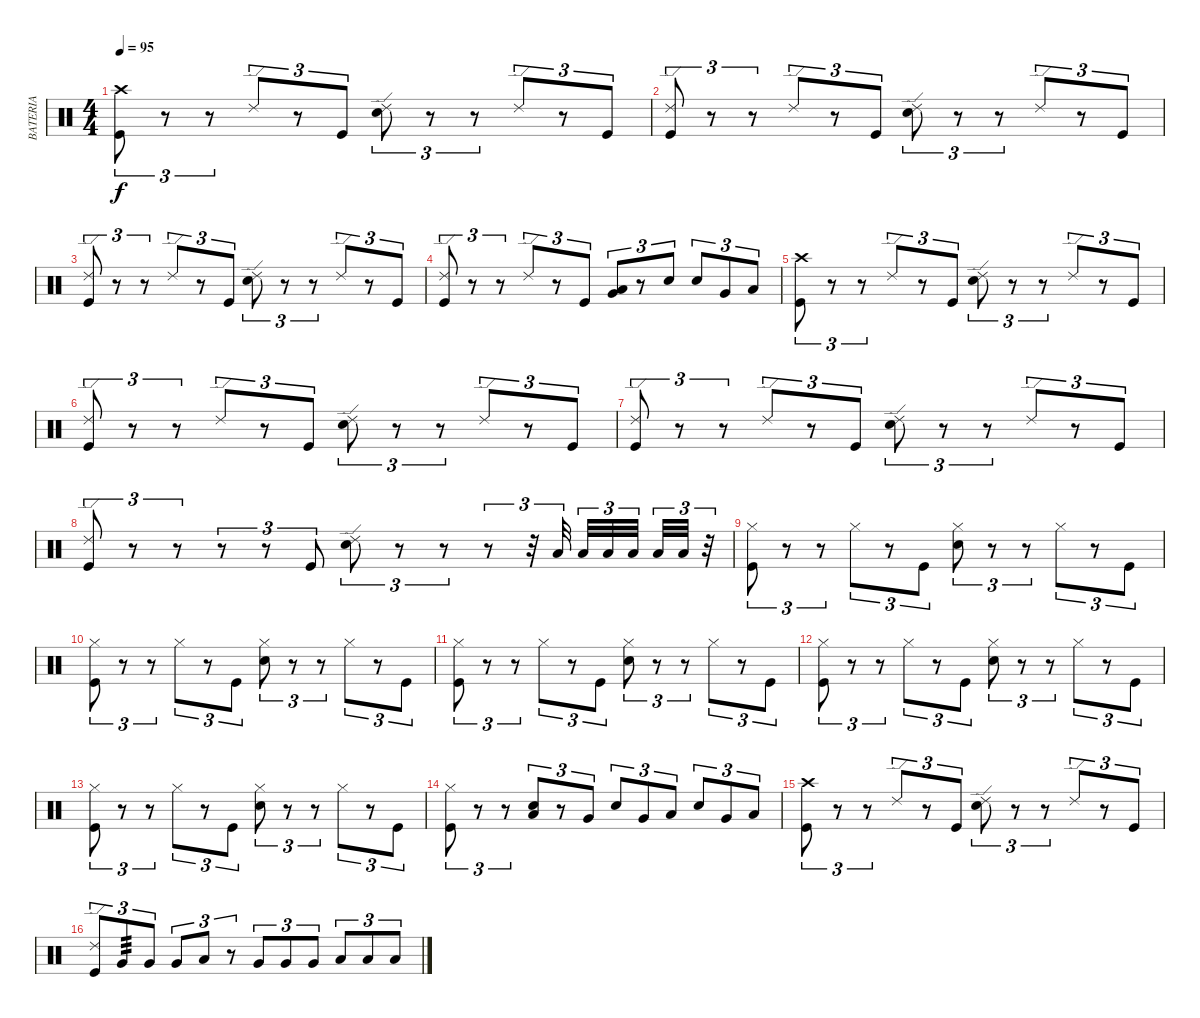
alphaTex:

\track ("BATERIA" "BATERIA") {instrument percussion}
\staff {score}
\articulation defaults
\ts (4 4)
\tempo 95
\clef neutral
\ks c
("Crash high (hit)" "Kick (hit)").8{tu (3 2) dy f} r.8{tu (3 2)} r.8{tu (3 2)} "Ride (edge) 2".8{tu (3 2)} r.8{tu (3 2)} "Kick (hit)".8{tu (3 2)} ("Ride (edge) 2" "Snare (hit) 2").8{tu (3 2)} r.8{tu (3 2)} r.8{tu (3 2)} "Ride (edge) 2".8{tu (3 2)} r.8{tu (3 2)} "Kick (hit)".8{tu (3 2)} |
("Ride (edge) 2" "Kick (hit)").8{tu (3 2)} r.8{tu (3 2)} r.8{tu (3 2)} "Ride (edge) 2".8{tu (3 2)} r.8{tu (3 2)} "Kick (hit)".8{tu (3 2)} ("Ride (edge) 2" "Snare (hit) 2").8{tu (3 2)} r.8{tu (3 2)} r.8{tu (3 2)} "Ride (edge) 2".8{tu (3 2)} r.8{tu (3 2)} "Kick (hit)".8{tu (3 2)} |
("Ride (edge) 2" "Kick (hit)").8{tu (3 2)} r.8{tu (3 2)} r.8{tu (3 2)} "Ride (edge) 2".8{tu (3 2)} r.8{tu (3 2)} "Kick (hit)".8{tu (3 2)} ("Ride (edge) 2" "Snare (hit) 2").8{tu (3 2)} r.8{tu (3 2)} r.8{tu (3 2)} "Ride (edge) 2".8{tu (3 2)} r.8{tu (3 2)} "Kick (hit)".8{tu (3 2)} |
("Ride (edge) 2" "Kick (hit)").8{tu (3 2)} r.8{tu (3 2)} r.8{tu (3 2)} "Ride (edge) 2".8{tu (3 2)} r.8{tu (3 2)} "Kick (hit)".8{tu (3 2)} ("Very Low Tom (hit)" "Low Tom (hit)").8{tu (3 2)} r.8{tu (3 2)} "Snare (hit) 2".8{tu (3 2)} "Snare (hit) 2".8{tu (3 2)} "Very Low Tom (hit)".8{tu (3 2)} "Low Floor Tom (hit)".8{tu (3 2)} |
("Crash high (hit)" "Kick (hit)").8{tu (3 2)} r.8{tu (3 2)} r.8{tu (3 2)} "Ride (edge) 2".8{tu (3 2)} r.8{tu (3 2)} "Kick (hit)".8{tu (3 2)} ("Ride (edge) 2" "Snare (hit) 2").8{tu (3 2)} r.8{tu (3 2)} r.8{tu (3 2)} "Ride (edge) 2".8{tu (3 2)} r.8{tu (3 2)} "Kick (hit)".8{tu (3 2)} |
("Ride (edge) 2" "Kick (hit)").8{tu (3 2)} r.8{tu (3 2)} r.8{tu (3 2)} "Ride (edge) 2".8{tu (3 2)} r.8{tu (3 2)} "Kick (hit)".8{tu (3 2)} ("Ride (edge) 2" "Snare (hit) 2").8{tu (3 2)} r.8{tu (3 2)} r.8{tu (3 2)} "Ride (edge) 2".8{tu (3 2)} r.8{tu (3 2)} "Kick (hit)".8{tu (3 2)} |
("Ride (edge) 2" "Kick (hit)").8{tu (3 2)} r.8{tu (3 2)} r.8{tu (3 2)} "Ride (edge) 2".8{tu (3 2)} r.8{tu (3 2)} "Kick (hit)".8{tu (3 2)} ("Ride (edge) 2" "Snare (hit) 2").8{tu (3 2)} r.8{tu (3 2)} r.8{tu (3 2)} "Ride (edge) 2".8{tu (3 2)} r.8{tu (3 2)} "Kick (hit)".8{tu (3 2)} |
("Ride (edge) 2" "Kick (hit)").8{tu (3 2)} r.8{tu (3 2)} r.8{tu (3 2)} r.8{tu (3 2)} r.8{tu (3 2)} "Kick (hit)".8{tu (3 2)} ("Ride (edge) 2" "Snare (hit) 2").8{tu (3 2)} r.8{tu (3 2)} r.8{tu (3 2)} r.8{tu (3 2)} r.32{tu (3 2)} "Low Floor Tom (hit)".32{tu (3 2) beam splitsecondary} "Low Floor Tom (hit)".32{tu (3 2)} "Low Floor Tom (hit)".32{tu (3 2)} "Low Floor Tom (hit)".32{tu (3 2) beam splitsecondary} "Low Floor Tom (hit)".32{tu (3 2)} "Low Floor Tom (hit)".32{tu (3 2)} r.32{tu (3 2)} |
("Hi-Hat (closed)" "Kick (hit)").8{tu (3 2)} r.8{tu (3 2)} r.8{tu (3 2)} "Hi-Hat (closed)".8{tu (3 2)} r.8{tu (3 2)} "Kick (hit)".8{tu (3 2)} ("Hi-Hat (closed)" "Snare (hit) 2").8{tu (3 2)} r.8{tu (3 2)} r.8{tu (3 2)} "Hi-Hat (closed)".8{tu (3 2)} r.8{tu (3 2)} "Kick (hit)".8{tu (3 2)} |
("Hi-Hat (closed)" "Kick (hit)").8{tu (3 2)} r.8{tu (3 2)} r.8{tu (3 2)} "Hi-Hat (closed)".8{tu (3 2)} r.8{tu (3 2)} "Kick (hit)".8{tu (3 2)} ("Hi-Hat (closed)" "Snare (hit) 2").8{tu (3 2)} r.8{tu (3 2)} r.8{tu (3 2)} "Hi-Hat (closed)".8{tu (3 2)} r.8{tu (3 2)} "Kick (hit)".8{tu (3 2)} |
("Hi-Hat (closed)" "Kick (hit)").8{tu (3 2)} r.8{tu (3 2)} r.8{tu (3 2)} "Hi-Hat (closed)".8{tu (3 2)} r.8{tu (3 2)} "Kick (hit)".8{tu (3 2)} ("Hi-Hat (closed)" "Snare (hit) 2").8{tu (3 2)} r.8{tu (3 2)} r.8{tu (3 2)} "Hi-Hat (closed)".8{tu (3 2)} r.8{tu (3 2)} "Kick (hit)".8{tu (3 2)} |
("Hi-Hat (closed)" "Kick (hit)").8{tu (3 2)} r.8{tu (3 2)} r.8{tu (3 2)} "Hi-Hat (closed)".8{tu (3 2)} r.8{tu (3 2)} "Kick (hit)".8{tu (3 2)} ("Hi-Hat (closed)" "Snare (hit) 2").8{tu (3 2)} r.8{tu (3 2)} r.8{tu (3 2)} "Hi-Hat (closed)".8{tu (3 2)} r.8{tu (3 2)} "Kick (hit)".8{tu (3 2)} |
("Hi-Hat (closed)" "Kick (hit)").8{tu (3 2)} r.8{tu (3 2)} r.8{tu (3 2)} "Hi-Hat (closed)".8{tu (3 2)} r.8{tu (3 2)} "Kick (hit)".8{tu (3 2)} ("Hi-Hat (closed)" "Snare (hit) 2").8{tu (3 2)} r.8{tu (3 2)} r.8{tu (3 2)} "Hi-Hat (closed)".8{tu (3 2)} r.8{tu (3 2)} "Kick (hit)".8{tu (3 2)} |
("Hi-Hat (closed)" "Kick (hit)").8{tu (3 2)} r.8{tu (3 2)} r.8{tu (3 2)} ("Low Floor Tom (hit)" "Snare (hit) 2").8{tu (3 2)} r.8{tu (3 2)} "Very Low Tom (hit)".8{tu (3 2)} "Snare (hit) 2".8{tu (3 2)} "Very Low Tom (hit)".8{tu (3 2)} "Low Tom (hit)".8{tu (3 2)} "Snare (hit) 2".8{tu (3 2)} "Very Low Tom (hit)".8{tu (3 2)} "Low Floor Tom (hit)".8{tu (3 2)} |
("Crash high (hit)" "Kick (hit)").8{tu (3 2)} r.8{tu (3 2)} r.8{tu (3 2)} "Ride (edge) 2".8{tu (3 2)} r.8{tu (3 2)} "Kick (hit)".8{tu (3 2)} ("Ride (edge) 2" "Snare (hit) 2").8{tu (3 2)} r.8{tu (3 2)} r.8{tu (3 2)} "Ride (edge) 2".8{tu (3 2)} r.8{tu (3 2)} "Kick (hit)".8{tu (3 2)} |
("Ride (edge) 2" "Kick (hit)").8{tu (3 2)} "Very Low Tom (hit)".8{tu (3 2) tp 3} "Very Low Tom (hit)".8{tu (3 2)} "Very Low Tom (hit)".8{tu (3 2)} "Low Floor Tom (hit)".8{tu (3 2)} r.8{tu (3 2)} "Very Low Tom (hit)".8{tu (3 2)} "Very Low Tom (hit)".8{tu (3 2)} "Very Low Tom (hit)".8{tu (3 2)} "Low Floor Tom (hit)".8{tu (3 2)} "Low Floor Tom (hit)".8{tu (3 2)} "Low Floor Tom (hit)".8{tu (3 2)}
